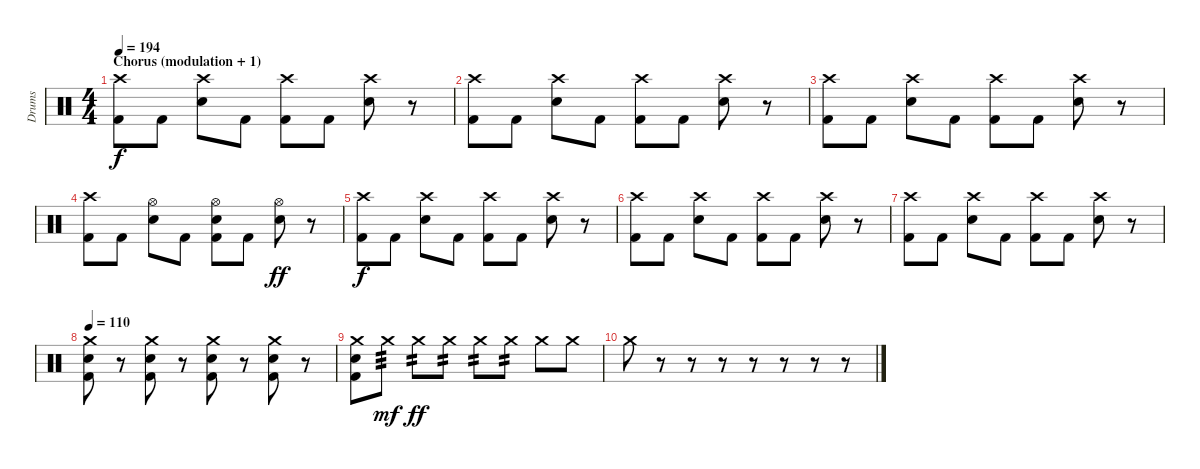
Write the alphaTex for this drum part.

\track ("Drums" "Drums") {instrument percussion}
\staff {score}
\articulation defaults
\ts (4 4)
\section ("" "Chorus (modulation + 1)")
\tempo 194
\clef neutral
\ks c
("Crash high (hit)" "Kick (hit) 2").8{dy f} "Kick (hit) 2".8 ("Crash high (hit)" "Snare (hit) 2").8 "Kick (hit) 2".8 ("Crash high (hit)" "Kick (hit) 2").8 "Kick (hit) 2".8 ("Crash high (hit)" "Snare (hit) 2").8 r.8 |
("Crash high (hit)" "Kick (hit) 2").8 "Kick (hit) 2".8 ("Crash high (hit)" "Snare (hit) 2").8 "Kick (hit) 2".8 ("Crash high (hit)" "Kick (hit) 2").8 "Kick (hit) 2".8 ("Crash high (hit)" "Snare (hit) 2").8 r.8 |
("Crash high (hit)" "Kick (hit) 2").8 "Kick (hit) 2".8 ("Crash high (hit)" "Snare (hit) 2").8 "Kick (hit) 2".8 ("Crash high (hit)" "Kick (hit) 2").8 "Kick (hit) 2".8 ("Crash high (hit)" "Snare (hit) 2").8 r.8 |
("Crash high (hit)" "Kick (hit) 2").8 "Kick (hit) 2".8 ("Hi-Hat (open)" "Snare (hit) 2").8 "Kick (hit) 2".8 ("Hi-Hat (open)" "Snare (hit) 2" "Kick (hit) 2").8 "Kick (hit) 2".8 ("Hi-Hat (open)" "Snare (hit) 2").8{dy ff} r.8 |
("Crash high (hit)" "Kick (hit) 2").8{dy f} "Kick (hit) 2".8 ("Crash high (hit)" "Snare (hit) 2").8 "Kick (hit) 2".8 ("Crash high (hit)" "Kick (hit) 2").8 "Kick (hit) 2".8 ("Crash high (hit)" "Snare (hit) 2").8 r.8 |
("Crash high (hit)" "Kick (hit) 2").8 "Kick (hit) 2".8 ("Crash high (hit)" "Snare (hit) 2").8 "Kick (hit) 2".8 ("Crash high (hit)" "Kick (hit) 2").8 "Kick (hit) 2".8 ("Crash high (hit)" "Snare (hit) 2").8 r.8 |
("Crash high (hit)" "Kick (hit) 2").8 "Kick (hit) 2".8 ("Crash high (hit)" "Snare (hit) 2").8 "Kick (hit) 2".8 ("Crash high (hit)" "Kick (hit) 2").8 "Kick (hit) 2".8 ("Crash high (hit)" "Snare (hit) 2").8 r.8 |
\tempo 110
("Crash medium (hit)" "Snare (hit) 2" "Kick (hit) 2").8 r.8 ("Crash medium (hit)" "Snare (hit) 2" "Kick (hit) 2").8 r.8 ("Crash medium (hit)" "Snare (hit) 2" "Kick (hit) 2").8 r.8 ("Crash medium (hit)" "Snare (hit) 2" "Kick (hit) 2").8 r.8 |
("Crash medium (hit)" "Snare (hit) 2" "Kick (hit) 2").8 "Crash medium (hit)".8{tp 3 dy mf volume 11} "Crash medium (hit)".8{tp 2 dy ff volume 13} "Crash medium (hit)".8{tp 2 volume 15} "Crash medium (hit)".8{tp 2 volume 12} "Crash medium (hit)".8{tp 2} "Crash medium (hit)".8 "Crash medium (hit)".8 |
"Crash medium (hit)".8 r.8 r.8 r.8 r.8 r.8 r.8 r.8
